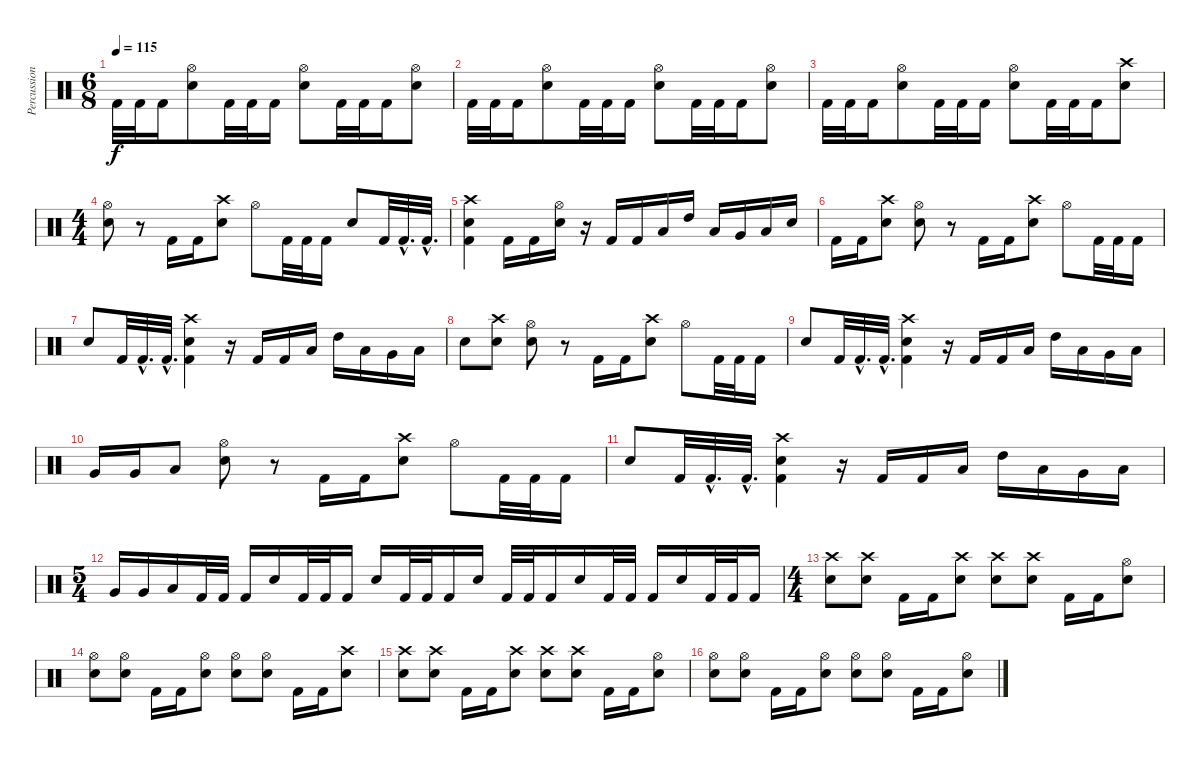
\track ("Percussioni" "Percussion") {instrument percussion}
\staff {score}
\articulation defaults
\ts (6 8)
\tempo 115
\clef neutral
\ks c "Kick (hit) 2".32{dy f} "Kick (hit) 2".32 "Kick (hit) 2".16
("Hi-Hat (open)" "Electric Snare (hit)").8 "Kick (hit) 2".32 "Kick (hit) 2".32 "Kick (hit) 2".16 ("Hi-Hat (open)" "Electric Snare (hit)").8 "Kick (hit) 2".32 "Kick (hit) 2".32 "Kick (hit) 2".16 ("Hi-Hat (open)" "Electric Snare (hit)").8 |
"Kick (hit) 2".32 "Kick (hit) 2".32 "Kick (hit) 2".16 ("Hi-Hat (open)" "Electric Snare (hit)").8 "Kick (hit) 2".32 "Kick (hit) 2".32 "Kick (hit) 2".16 ("Hi-Hat (open)" "Electric Snare (hit)").8 "Kick (hit) 2".32 "Kick (hit) 2".32 "Kick (hit) 2".16 ("Hi-Hat (open)" "Electric Snare (hit)").8 |
"Kick (hit) 2".32 "Kick (hit) 2".32 "Kick (hit) 2".16 ("Hi-Hat (open)" "Electric Snare (hit)").8 "Kick (hit) 2".32 "Kick (hit) 2".32 "Kick (hit) 2".16 ("Hi-Hat (open)" "Electric Snare (hit)").8 "Kick (hit) 2".32 "Kick (hit) 2".32 "Kick (hit) 2".16 ("Crash high (hit)" "Electric Snare (hit)").8 |
\ts (4 4)
("Hi-Hat (open)" "Electric Snare (hit)").8 r.8 "Kick (hit) 2".16 "Kick (hit) 2".16 ("Crash high (hit)" "Electric Snare (hit)").8 "Hi-Hat (open)".8 "Kick (hit) 2".32 "Kick (hit) 2".32 "Kick (hit) 2".16 "Electric Snare (hit)".8 "Kick (hit) 2".32 "Kick (hit) 2"{hac}.32{d} "Kick (hit) 2"{hac}.32{d} |
("Crash high (hit)" "Electric Snare (hit)" "Kick (hit) 2").4 "Kick (hit) 2".16 "Kick (hit) 2".16 ("Hi-Hat (open)" "Electric Snare (hit)").16 r.16 "Kick (hit) 2".16 "Kick (hit) 2".16 "Low Tom (hit)".16 "High Tom (hit)".16 "Low Tom (hit)".16 "Very Low Tom (hit)".16 "Low Tom (hit)".16 "Electric Snare (hit)".16 |
"Kick (hit) 2".16 "Kick (hit) 2".16 ("Crash high (hit)" "Electric Snare (hit)").8 ("Hi-Hat (open)" "Electric Snare (hit)").8 r.8 "Kick (hit) 2".16 "Kick (hit) 2".16 ("Crash high (hit)" "Electric Snare (hit)").8 "Hi-Hat (open)".8 "Kick (hit) 2".32 "Kick (hit) 2".32 "Kick (hit) 2".16 |
"Electric Snare (hit)".8 "Kick (hit) 2".32 "Kick (hit) 2"{hac}.32{d} "Kick (hit) 2"{hac}.32{d} ("Crash high (hit)" "Electric Snare (hit)" "Kick (hit) 2").4 r.16 "Kick (hit) 2".16 "Kick (hit) 2".16 "Low Tom (hit)".16 "High Tom (hit)".16 "Low Tom (hit)".16 "Very Low Tom (hit)".16 "Low Tom (hit)".16 |
"Electric Snare (hit)".8 ("Crash high (hit)" "Electric Snare (hit)").8 ("Hi-Hat (open)" "Electric Snare (hit)").8 r.8 "Kick (hit) 2".16 "Kick (hit) 2".16 ("Crash high (hit)" "Electric Snare (hit)").8 "Hi-Hat (open)".8 "Kick (hit) 2".32 "Kick (hit) 2".32 "Kick (hit) 2".16 |
"Electric Snare (hit)".8 "Kick (hit) 2".32 "Kick (hit) 2"{hac}.32{d} "Kick (hit) 2"{hac}.32{d} ("Crash high (hit)" "Electric Snare (hit)" "Kick (hit) 2").4 r.16 "Kick (hit) 2".16 "Kick (hit) 2".16 "Low Tom (hit)".16 "High Tom (hit)".16 "Low Tom (hit)".16 "Very Low Tom (hit)".16 "Low Tom (hit)".16 |
"Very Low Tom (hit)".16 "Very Low Tom (hit)".16 "Low Floor Tom (hit)".8 ("Hi-Hat (open)" "Electric Snare (hit)").8 r.8 "Kick (hit) 2".16 "Kick (hit) 2".16 ("Crash high (hit)" "Electric Snare (hit)").8 "Hi-Hat (open)".8 "Kick (hit) 2".32 "Kick (hit) 2".32 "Kick (hit) 2".16 |
"Electric Snare (hit)".8 "Kick (hit) 2".32 "Kick (hit) 2"{hac}.32{d} "Kick (hit) 2"{hac}.32{d} ("Crash high (hit)" "Electric Snare (hit)" "Kick (hit) 2").4 r.16 "Kick (hit) 2".16 "Kick (hit) 2".16 "Low Tom (hit)".16 "High Tom (hit)".16 "Low Tom (hit)".16 "Very Low Tom (hit)".16 "Low Tom (hit)".16 |
\ts (5 4)
"Very Low Tom (hit)".16 "Very Low Tom (hit)".16 "Low Floor Tom (hit)".16 "Kick (hit) 2".32 "Kick (hit) 2".32 "Kick (hit) 2".16 "Electric Snare (hit)".16 "Kick (hit) 2".32 "Kick (hit) 2".32 "Kick (hit) 2".16 "Electric Snare (hit)".16 "Kick (hit) 2".32 "Kick (hit) 2".32 "Kick (hit) 2".16 "Electric Snare (hit)".16 "Kick (hit) 2".32 "Kick (hit) 2".32 "Kick (hit) 2".16 "Electric Snare (hit)".16 "Kick (hit) 2".32 "Kick (hit) 2".32 "Kick (hit) 2".16 "Electric Snare (hit)".16 "Kick (hit) 2".32 "Kick (hit) 2".32 "Kick (hit) 2".16 |
\ts (4 4)
("Crash high (hit)" "Electric Snare (hit)").8 ("Crash high (hit)" "Electric Snare (hit)").8 "Kick (hit) 2".16 "Kick (hit) 2".16 ("Crash high (hit)" "Electric Snare (hit)").8 ("Crash high (hit)" "Electric Snare (hit)").8 ("Crash high (hit)" "Electric Snare (hit)").8 "Kick (hit) 2".16 "Kick (hit) 2".16 ("Hi-Hat (open)" "Electric Snare (hit)").8 |
("Hi-Hat (open)" "Electric Snare (hit)").8 ("Hi-Hat (open)" "Electric Snare (hit)").8 "Kick (hit) 2".16 "Kick (hit) 2".16 ("Hi-Hat (open)" "Electric Snare (hit)").8 ("Hi-Hat (open)" "Electric Snare (hit)").8 ("Hi-Hat (open)" "Electric Snare (hit)").8 "Kick (hit) 2".16 "Kick (hit) 2".16 ("Crash high (hit)" "Electric Snare (hit)").8 |
("Crash high (hit)" "Electric Snare (hit)").8 ("Crash high (hit)" "Electric Snare (hit)").8 "Kick (hit) 2".16 "Kick (hit) 2".16 ("Crash high (hit)" "Electric Snare (hit)").8 ("Crash high (hit)" "Electric Snare (hit)").8 ("Crash high (hit)" "Electric Snare (hit)").8 "Kick (hit) 2".16 "Kick (hit) 2".16 ("Hi-Hat (open)" "Electric Snare (hit)").8 |
("Hi-Hat (open)" "Electric Snare (hit)").8 ("Hi-Hat (open)" "Electric Snare (hit)").8 "Kick (hit) 2".16 "Kick (hit) 2".16 ("Hi-Hat (open)" "Electric Snare (hit)").8 ("Hi-Hat (open)" "Electric Snare (hit)").8 ("Hi-Hat (open)" "Electric Snare (hit)").8 "Kick (hit) 2".16 "Kick (hit) 2".16 ("Hi-Hat (open)" "Electric Snare (hit)").8
